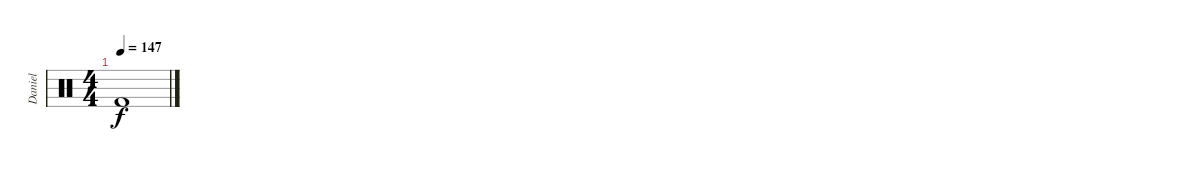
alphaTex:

\track ("Daniel" "Daniel") {instrument percussion}
\staff {score}
\articulation defaults
\ts (4 4)
\tempo 147
\clef neutral
\ks c "Kick (hit) 2".1{dy f}
